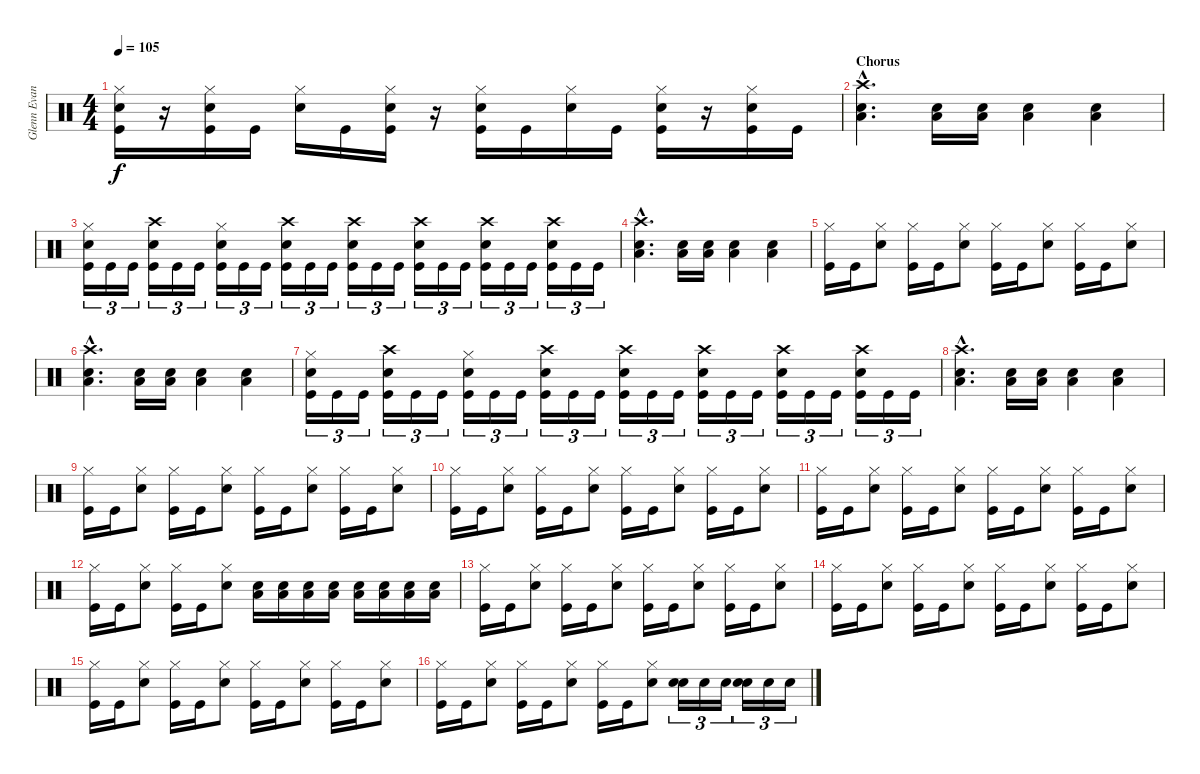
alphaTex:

\track ("Glenn Evans" "Glenn Evan") {instrument percussion}
\staff {score}
\articulation defaults
\ts (4 4)
\tempo 105
\clef neutral
\ks c
("Hi-Hat (closed)" "Snare (hit) 2" "Kick (hit)").16{dy f} r.16 ("Hi-Hat (closed)" "Snare (hit) 2" "Kick (hit)").16 "Kick (hit)".16 ("Hi-Hat (closed)" "Snare (hit) 2").16 "Kick (hit)".16 ("Hi-Hat (closed)" "Snare (hit) 2" "Kick (hit)").16 r.16 ("Hi-Hat (closed)" "Snare (hit) 2" "Kick (hit)").16 "Kick (hit)".16 ("Hi-Hat (closed)" "Snare (hit) 2").16 "Kick (hit)".16 ("Hi-Hat (closed)" "Snare (hit) 2" "Kick (hit)").16 r.16 ("Hi-Hat (closed)" "Snare (hit) 2" "Kick (hit)").16 "Kick (hit)".16 |
\section ("" "Chorus")
("Crash high (hit)"{hac} "Snare (hit) 2"{hac} "Low Floor Tom (hit)"{hac}).4{d} ("Snare (hit) 2" "Low Floor Tom (hit)").16 ("Snare (hit) 2" "Low Floor Tom (hit)").16 ("Snare (hit) 2" "Low Floor Tom (hit)").4 ("Snare (hit) 2" "Low Floor Tom (hit)").4 |
("Hi-Hat (closed)" "Snare (hit) 2" "Kick (hit)").16{tu (3 2)} "Kick (hit)".16{tu (3 2)} "Kick (hit)".16{tu (3 2)} ("Crash high (hit)" "Snare (hit) 2" "Kick (hit)").16{tu (3 2)} "Kick (hit)".16{tu (3 2)} "Kick (hit)".16{tu (3 2)} ("Hi-Hat (closed)" "Snare (hit) 2" "Kick (hit)").16{tu (3 2)} "Kick (hit)".16{tu (3 2)} "Kick (hit)".16{tu (3 2)} ("Crash high (hit)" "Snare (hit) 2" "Kick (hit)").16{tu (3 2)} "Kick (hit)".16{tu (3 2)} "Kick (hit)".16{tu (3 2)} ("Crash high (hit)" "Snare (hit) 2" "Kick (hit)").16{tu (3 2)} "Kick (hit)".16{tu (3 2)} "Kick (hit)".16{tu (3 2)} ("Crash high (hit)" "Snare (hit) 2" "Kick (hit)").16{tu (3 2)} "Kick (hit)".16{tu (3 2)} "Kick (hit)".16{tu (3 2)} ("Crash high (hit)" "Snare (hit) 2" "Kick (hit)").16{tu (3 2)} "Kick (hit)".16{tu (3 2)} "Kick (hit)".16{tu (3 2)} ("Crash high (hit)" "Snare (hit) 2" "Kick (hit)").16{tu (3 2)} "Kick (hit)".16{tu (3 2)} "Kick (hit)".16{tu (3 2)} |
("Crash high (hit)"{hac} "Snare (hit) 2"{hac} "Low Floor Tom (hit)"{hac}).4{d} ("Snare (hit) 2" "Low Floor Tom (hit)").16 ("Snare (hit) 2" "Low Floor Tom (hit)").16 ("Snare (hit) 2" "Low Floor Tom (hit)").4 ("Snare (hit) 2" "Low Floor Tom (hit)").4 |
("Hi-Hat (closed)" "Kick (hit)").16 "Kick (hit)".16 ("Hi-Hat (closed)" "Snare (hit) 2").8 ("Hi-Hat (closed)" "Kick (hit)").16 "Kick (hit)".16 ("Hi-Hat (closed)" "Snare (hit) 2").8 ("Hi-Hat (closed)" "Kick (hit)").16 "Kick (hit)".16 ("Hi-Hat (closed)" "Snare (hit) 2").8 ("Hi-Hat (closed)" "Kick (hit)").16 "Kick (hit)".16 ("Hi-Hat (closed)" "Snare (hit) 2").8 |
("Crash high (hit)"{hac} "Snare (hit) 2"{hac} "Low Floor Tom (hit)"{hac}).4{d} ("Snare (hit) 2" "Low Floor Tom (hit)").16 ("Snare (hit) 2" "Low Floor Tom (hit)").16 ("Snare (hit) 2" "Low Floor Tom (hit)").4 ("Snare (hit) 2" "Low Floor Tom (hit)").4 |
("Hi-Hat (closed)" "Snare (hit) 2" "Kick (hit)").16{tu (3 2)} "Kick (hit)".16{tu (3 2)} "Kick (hit)".16{tu (3 2)} ("Crash high (hit)" "Snare (hit) 2" "Kick (hit)").16{tu (3 2)} "Kick (hit)".16{tu (3 2)} "Kick (hit)".16{tu (3 2)} ("Hi-Hat (closed)" "Snare (hit) 2" "Kick (hit)").16{tu (3 2)} "Kick (hit)".16{tu (3 2)} "Kick (hit)".16{tu (3 2)} ("Crash high (hit)" "Snare (hit) 2" "Kick (hit)").16{tu (3 2)} "Kick (hit)".16{tu (3 2)} "Kick (hit)".16{tu (3 2)} ("Crash high (hit)" "Snare (hit) 2" "Kick (hit)").16{tu (3 2)} "Kick (hit)".16{tu (3 2)} "Kick (hit)".16{tu (3 2)} ("Crash high (hit)" "Snare (hit) 2" "Kick (hit)").16{tu (3 2)} "Kick (hit)".16{tu (3 2)} "Kick (hit)".16{tu (3 2)} ("Crash high (hit)" "Snare (hit) 2" "Kick (hit)").16{tu (3 2)} "Kick (hit)".16{tu (3 2)} "Kick (hit)".16{tu (3 2)} ("Crash high (hit)" "Snare (hit) 2" "Kick (hit)").16{tu (3 2)} "Kick (hit)".16{tu (3 2)} "Kick (hit)".16{tu (3 2)} |
("Crash high (hit)"{hac} "Snare (hit) 2"{hac} "Low Floor Tom (hit)"{hac}).4{d} ("Snare (hit) 2" "Low Floor Tom (hit)").16 ("Snare (hit) 2" "Low Floor Tom (hit)").16 ("Snare (hit) 2" "Low Floor Tom (hit)").4 ("Snare (hit) 2" "Low Floor Tom (hit)").4 |
("Hi-Hat (closed)" "Kick (hit)").16 "Kick (hit)".16 ("Hi-Hat (closed)" "Snare (hit) 2").8 ("Hi-Hat (closed)" "Kick (hit)").16 "Kick (hit)".16 ("Hi-Hat (closed)" "Snare (hit) 2").8 ("Hi-Hat (closed)" "Kick (hit)").16 "Kick (hit)".16 ("Hi-Hat (closed)" "Snare (hit) 2").8 ("Hi-Hat (closed)" "Kick (hit)").16 "Kick (hit)".16 ("Hi-Hat (closed)" "Snare (hit) 2").8 |
("Hi-Hat (closed)" "Kick (hit)").16 "Kick (hit)".16 ("Hi-Hat (closed)" "Snare (hit) 2").8 ("Hi-Hat (closed)" "Kick (hit)").16 "Kick (hit)".16 ("Hi-Hat (closed)" "Snare (hit) 2").8 ("Hi-Hat (closed)" "Kick (hit)").16 "Kick (hit)".16 ("Hi-Hat (closed)" "Snare (hit) 2").8 ("Hi-Hat (closed)" "Kick (hit)").16 "Kick (hit)".16 ("Hi-Hat (closed)" "Snare (hit) 2").8 |
("Hi-Hat (closed)" "Kick (hit)").16 "Kick (hit)".16 ("Hi-Hat (closed)" "Snare (hit) 2").8 ("Hi-Hat (closed)" "Kick (hit)").16 "Kick (hit)".16 ("Hi-Hat (closed)" "Snare (hit) 2").8 ("Hi-Hat (closed)" "Kick (hit)").16 "Kick (hit)".16 ("Hi-Hat (closed)" "Snare (hit) 2").8 ("Hi-Hat (closed)" "Kick (hit)").16 "Kick (hit)".16 ("Hi-Hat (closed)" "Snare (hit) 2").8 |
("Hi-Hat (closed)" "Kick (hit)").16 "Kick (hit)".16 ("Hi-Hat (closed)" "Snare (hit) 2").8 ("Hi-Hat (closed)" "Kick (hit)").16 "Kick (hit)".16 ("Hi-Hat (closed)" "Snare (hit) 2").8 ("Snare (hit) 2" "Low Floor Tom (hit)").16 ("Snare (hit) 2" "Low Floor Tom (hit)").16 ("Snare (hit) 2" "Low Floor Tom (hit)").16 ("Snare (hit) 2" "Low Floor Tom (hit)").16 ("Snare (hit) 2" "Low Floor Tom (hit)").16 ("Snare (hit) 2" "Low Floor Tom (hit)").16 ("Snare (hit) 2" "Low Floor Tom (hit)").16 ("Snare (hit) 2" "Low Floor Tom (hit)").16 |
("Hi-Hat (closed)" "Kick (hit)").16 "Kick (hit)".16 ("Hi-Hat (closed)" "Snare (hit) 2").8 ("Hi-Hat (closed)" "Kick (hit)").16 "Kick (hit)".16 ("Hi-Hat (closed)" "Snare (hit) 2").8 ("Hi-Hat (closed)" "Kick (hit)").16 "Kick (hit)".16 ("Hi-Hat (closed)" "Snare (hit) 2").8 ("Hi-Hat (closed)" "Kick (hit)").16 "Kick (hit)".16 ("Hi-Hat (closed)" "Snare (hit) 2").8 |
("Hi-Hat (closed)" "Kick (hit)").16 "Kick (hit)".16 ("Hi-Hat (closed)" "Snare (hit) 2").8 ("Hi-Hat (closed)" "Kick (hit)").16 "Kick (hit)".16 ("Hi-Hat (closed)" "Snare (hit) 2").8 ("Hi-Hat (closed)" "Kick (hit)").16 "Kick (hit)".16 ("Hi-Hat (closed)" "Snare (hit) 2").8 ("Hi-Hat (closed)" "Kick (hit)").16 "Kick (hit)".16 ("Hi-Hat (closed)" "Snare (hit) 2").8 |
("Hi-Hat (closed)" "Kick (hit)").16 "Kick (hit)".16 ("Hi-Hat (closed)" "Snare (hit) 2").8 ("Hi-Hat (closed)" "Kick (hit)").16 "Kick (hit)".16 ("Hi-Hat (closed)" "Snare (hit) 2").8 ("Hi-Hat (closed)" "Kick (hit)").16 "Kick (hit)".16 ("Hi-Hat (closed)" "Snare (hit) 2").8 ("Hi-Hat (closed)" "Kick (hit)").16 "Kick (hit)".16 ("Hi-Hat (closed)" "Snare (hit) 2").8 |
("Hi-Hat (closed)" "Kick (hit)").16 "Kick (hit)".16 ("Hi-Hat (closed)" "Snare (hit) 2").8 ("Hi-Hat (closed)" "Kick (hit)").16 "Kick (hit)".16 ("Hi-Hat (closed)" "Snare (hit) 2").8 ("Hi-Hat (closed)" "Kick (hit)").16 "Kick (hit)".16 ("Hi-Hat (closed)" "Snare (hit) 2").8 ("Snare (hit) 2" "Snare (hit) 2").16{tu (3 2)} "Snare (hit) 2".16{tu (3 2)} "Snare (hit) 2".16{tu (3 2)} ("Snare (hit) 2" "Snare (hit) 2").16{tu (3 2)} "Snare (hit) 2".16{tu (3 2)} "Snare (hit) 2".16{tu (3 2)}
